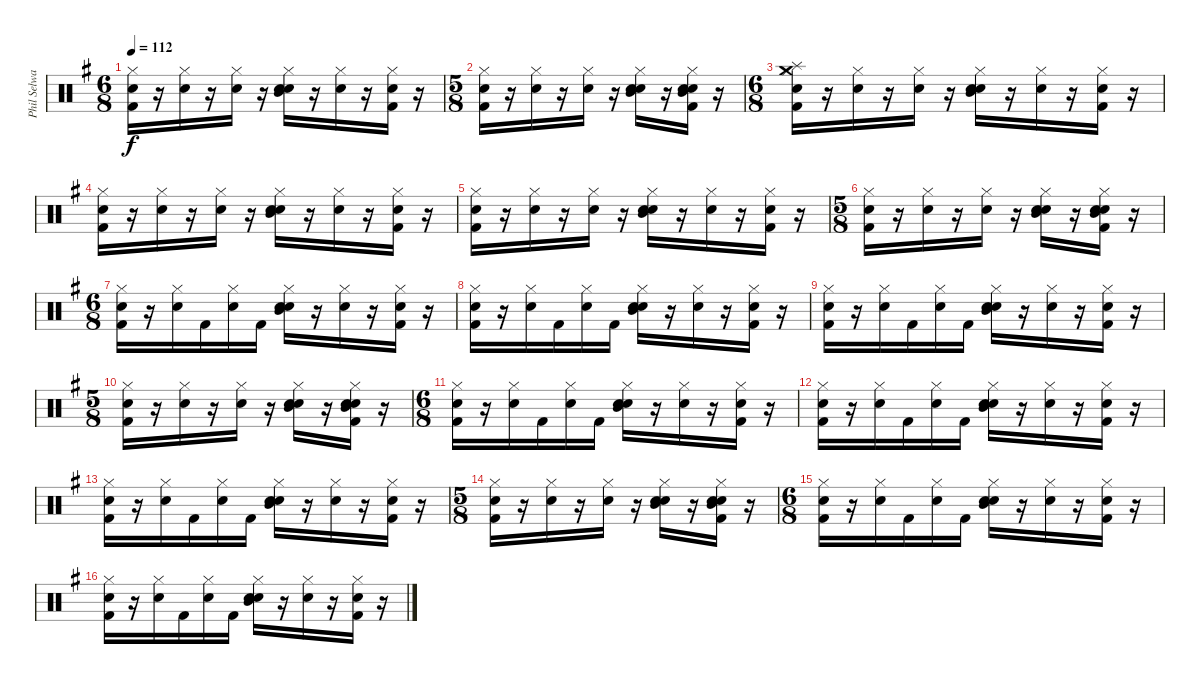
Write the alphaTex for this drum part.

\track ("Phil Selway" "Phil Selwa") {instrument percussion}
\staff {score}
\articulation defaults
\ts (6 8)
\tempo 112
\clef neutral
\ks g
("Hi-Hat (closed)" "Kick (hit) 2" "Snare (hit) 2").16{dy f} r.16 ("Hi-Hat (closed)" "Snare (hit) 2").16 r.16 ("Hi-Hat (closed)" "Snare (hit) 2").16 r.16 ("Hi-Hat (closed)" "Snare (hit) 2" "Mid Tom (hit)" "Electric Snare (hit)").16 r.16 ("Hi-Hat (closed)" "Snare (hit) 2").16 r.16 ("Hi-Hat (closed)" "Snare (hit) 2" "Kick (hit) 2").16 r.16 |
\ts (5 8)
("Hi-Hat (closed)" "Snare (hit) 2" "Kick (hit) 2").16 r.16 ("Hi-Hat (closed)" "Snare (hit) 2").16 r.16 ("Hi-Hat (closed)" "Snare (hit) 2").16 r.16 ("Hi-Hat (closed)" "Snare (hit) 2" "Mid Tom (hit)" "Electric Snare (hit)").16 r.16 ("Hi-Hat (closed)" "Snare (hit) 2" "Kick (hit) 2" "Mid Tom (hit)" "Electric Snare (hit)").16 r.16 |
\ts (6 8)
("Hi-Hat (closed)" "Kick (hit) 2" "Snare (hit) 2" "Splash (hit)" "Crash medium (hit)").16 r.16 ("Hi-Hat (closed)" "Snare (hit) 2").16 r.16 ("Hi-Hat (closed)" "Snare (hit) 2").16 r.16 ("Hi-Hat (closed)" "Snare (hit) 2" "Mid Tom (hit)" "Electric Snare (hit)").16 r.16 ("Hi-Hat (closed)" "Snare (hit) 2").16 r.16 ("Hi-Hat (closed)" "Snare (hit) 2" "Kick (hit) 2").16 r.16 |
("Hi-Hat (closed)" "Kick (hit) 2" "Snare (hit) 2").16 r.16 ("Hi-Hat (closed)" "Snare (hit) 2").16 r.16 ("Hi-Hat (closed)" "Snare (hit) 2").16 r.16 ("Hi-Hat (closed)" "Snare (hit) 2" "Mid Tom (hit)" "Electric Snare (hit)").16 r.16 ("Hi-Hat (closed)" "Snare (hit) 2").16 r.16 ("Hi-Hat (closed)" "Snare (hit) 2" "Kick (hit) 2").16 r.16 |
("Hi-Hat (closed)" "Kick (hit) 2" "Snare (hit) 2").16 r.16 ("Hi-Hat (closed)" "Snare (hit) 2").16 r.16 ("Hi-Hat (closed)" "Snare (hit) 2").16 r.16 ("Hi-Hat (closed)" "Snare (hit) 2" "Mid Tom (hit)" "Electric Snare (hit)").16 r.16 ("Hi-Hat (closed)" "Snare (hit) 2").16 r.16 ("Hi-Hat (closed)" "Snare (hit) 2" "Kick (hit) 2").16 r.16 |
\ts (5 8)
("Hi-Hat (closed)" "Snare (hit) 2" "Kick (hit) 2").16 r.16 ("Hi-Hat (closed)" "Snare (hit) 2").16 r.16 ("Hi-Hat (closed)" "Snare (hit) 2").16 r.16 ("Hi-Hat (closed)" "Snare (hit) 2" "Mid Tom (hit)" "Electric Snare (hit)").16 r.16 ("Hi-Hat (closed)" "Snare (hit) 2" "Kick (hit) 2" "Mid Tom (hit)" "Electric Snare (hit)").16 r.16 |
\ts (6 8)
("Hi-Hat (closed)" "Kick (hit) 2" "Snare (hit) 2").16 r.16 ("Hi-Hat (closed)" "Snare (hit) 2").16 "Kick (hit) 2".16 ("Hi-Hat (closed)" "Snare (hit) 2").16 "Kick (hit) 2".16 ("Hi-Hat (closed)" "Snare (hit) 2" "Mid Tom (hit)" "Electric Snare (hit)").16 r.16 ("Hi-Hat (closed)" "Snare (hit) 2").16 r.16 ("Hi-Hat (closed)" "Snare (hit) 2" "Kick (hit) 2").16 r.16 |
("Hi-Hat (closed)" "Kick (hit) 2" "Snare (hit) 2").16 r.16 ("Hi-Hat (closed)" "Snare (hit) 2").16 "Kick (hit) 2".16 ("Hi-Hat (closed)" "Snare (hit) 2").16 "Kick (hit) 2".16 ("Hi-Hat (closed)" "Snare (hit) 2" "Mid Tom (hit)" "Electric Snare (hit)").16 r.16 ("Hi-Hat (closed)" "Snare (hit) 2").16 r.16 ("Hi-Hat (closed)" "Snare (hit) 2" "Kick (hit) 2").16 r.16 |
("Hi-Hat (closed)" "Kick (hit) 2" "Snare (hit) 2").16 r.16 ("Hi-Hat (closed)" "Snare (hit) 2").16 "Kick (hit) 2".16 ("Hi-Hat (closed)" "Snare (hit) 2").16 "Kick (hit) 2".16 ("Hi-Hat (closed)" "Snare (hit) 2" "Mid Tom (hit)" "Electric Snare (hit)").16 r.16 ("Hi-Hat (closed)" "Snare (hit) 2").16 r.16 ("Hi-Hat (closed)" "Snare (hit) 2" "Kick (hit) 2").16 r.16 |
\ts (5 8)
("Hi-Hat (closed)" "Snare (hit) 2" "Kick (hit) 2").16 r.16 ("Hi-Hat (closed)" "Snare (hit) 2").16 r.16 ("Hi-Hat (closed)" "Snare (hit) 2").16 r.16 ("Hi-Hat (closed)" "Snare (hit) 2" "Mid Tom (hit)" "Electric Snare (hit)").16 r.16 ("Hi-Hat (closed)" "Snare (hit) 2" "Kick (hit) 2" "Mid Tom (hit)" "Electric Snare (hit)").16 r.16 |
\ts (6 8)
("Hi-Hat (closed)" "Kick (hit) 2" "Snare (hit) 2").16 r.16 ("Hi-Hat (closed)" "Snare (hit) 2").16 "Kick (hit) 2".16 ("Hi-Hat (closed)" "Snare (hit) 2").16 "Kick (hit) 2".16 ("Hi-Hat (closed)" "Snare (hit) 2" "Mid Tom (hit)" "Electric Snare (hit)").16 r.16 ("Hi-Hat (closed)" "Snare (hit) 2").16 r.16 ("Hi-Hat (closed)" "Snare (hit) 2" "Kick (hit) 2").16 r.16 |
("Hi-Hat (closed)" "Kick (hit) 2" "Snare (hit) 2").16 r.16 ("Hi-Hat (closed)" "Snare (hit) 2").16 "Kick (hit) 2".16 ("Hi-Hat (closed)" "Snare (hit) 2").16 "Kick (hit) 2".16 ("Hi-Hat (closed)" "Snare (hit) 2" "Mid Tom (hit)" "Electric Snare (hit)").16 r.16 ("Hi-Hat (closed)" "Snare (hit) 2").16 r.16 ("Hi-Hat (closed)" "Snare (hit) 2" "Kick (hit) 2").16 r.16 |
("Hi-Hat (closed)" "Kick (hit) 2" "Snare (hit) 2").16 r.16 ("Hi-Hat (closed)" "Snare (hit) 2").16 "Kick (hit) 2".16 ("Hi-Hat (closed)" "Snare (hit) 2").16 "Kick (hit) 2".16 ("Hi-Hat (closed)" "Snare (hit) 2" "Mid Tom (hit)" "Electric Snare (hit)").16 r.16 ("Hi-Hat (closed)" "Snare (hit) 2").16 r.16 ("Hi-Hat (closed)" "Snare (hit) 2" "Kick (hit) 2").16 r.16 |
\ts (5 8)
("Hi-Hat (closed)" "Snare (hit) 2" "Kick (hit) 2").16 r.16 ("Hi-Hat (closed)" "Snare (hit) 2").16 r.16 ("Hi-Hat (closed)" "Snare (hit) 2").16 r.16 ("Hi-Hat (closed)" "Snare (hit) 2" "Mid Tom (hit)" "Electric Snare (hit)").16 r.16 ("Hi-Hat (closed)" "Snare (hit) 2" "Kick (hit) 2" "Mid Tom (hit)" "Electric Snare (hit)").16 r.16 |
\ts (6 8)
("Hi-Hat (closed)" "Kick (hit) 2" "Snare (hit) 2").16 r.16 ("Hi-Hat (closed)" "Snare (hit) 2").16 "Kick (hit) 2".16 ("Hi-Hat (closed)" "Snare (hit) 2").16 "Kick (hit) 2".16 ("Hi-Hat (closed)" "Snare (hit) 2" "Mid Tom (hit)" "Electric Snare (hit)").16 r.16 ("Hi-Hat (closed)" "Snare (hit) 2").16 r.16 ("Hi-Hat (closed)" "Snare (hit) 2" "Kick (hit) 2").16 r.16 |
("Hi-Hat (closed)" "Kick (hit) 2" "Snare (hit) 2").16 r.16 ("Hi-Hat (closed)" "Snare (hit) 2").16 "Kick (hit) 2".16 ("Hi-Hat (closed)" "Snare (hit) 2").16 "Kick (hit) 2".16 ("Hi-Hat (closed)" "Snare (hit) 2" "Mid Tom (hit)" "Electric Snare (hit)").16 r.16 ("Hi-Hat (closed)" "Snare (hit) 2").16 r.16 ("Hi-Hat (closed)" "Snare (hit) 2" "Kick (hit) 2").16 r.16
